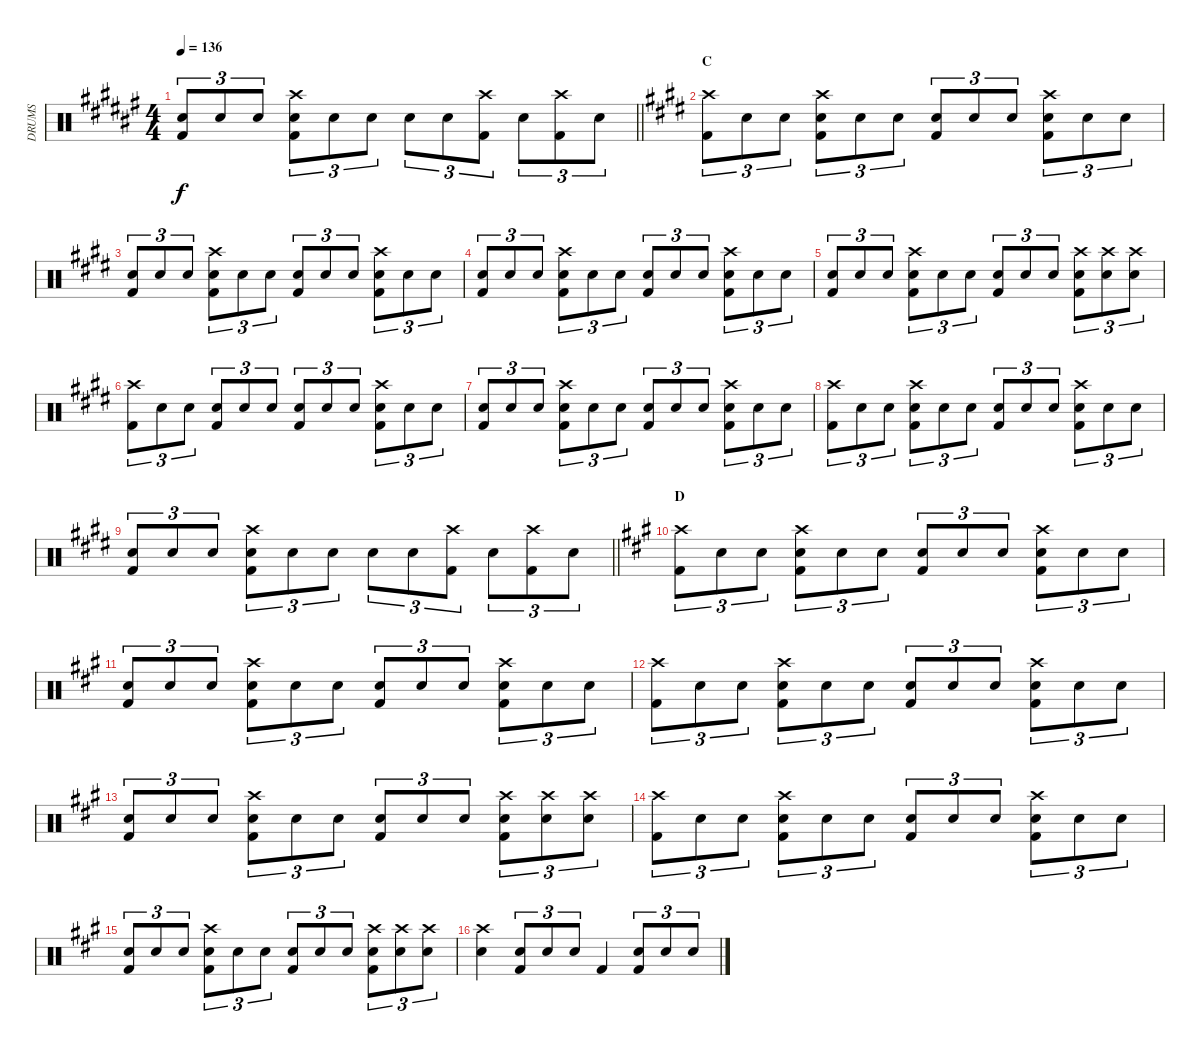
\track ("DRUMS" "DRUMS") {instrument percussion}
\staff {score}
\articulation defaults
\ts (4 4)
\tempo 136
\clef neutral
\barLineRight lightlight
\ks f#
("Snare (hit) 2" "Kick (hit) 2").8{tu (3 2) dy f} "Snare (hit) 2".8{tu (3 2)} "Snare (hit) 2".8{tu (3 2)} ("Crash high (hit)" "Snare (hit) 2" "Kick (hit) 2").8{tu (3 2)} "Snare (hit) 2".8{tu (3 2)} "Snare (hit) 2".8{tu (3 2)} "Snare (hit) 2".8{tu (3 2)} "Snare (hit) 2".8{tu (3 2)} ("Crash high (hit)" "Kick (hit) 2").8{tu (3 2)} "Snare (hit) 2".8{tu (3 2)} ("Crash high (hit)" "Kick (hit) 2").8{tu (3 2)} "Snare (hit) 2".8{tu (3 2)} |
\section ("" "C")
\ks e
("Crash high (hit)" "Kick (hit) 2").8{tu (3 2)} "Snare (hit) 2".8{tu (3 2)} "Snare (hit) 2".8{tu (3 2)} ("Crash high (hit)" "Snare (hit) 2" "Kick (hit) 2").8{tu (3 2)} "Snare (hit) 2".8{tu (3 2)} "Snare (hit) 2".8{tu (3 2)} ("Snare (hit) 2" "Kick (hit) 2").8{tu (3 2)} "Snare (hit) 2".8{tu (3 2)} "Snare (hit) 2".8{tu (3 2)} ("Crash high (hit)" "Snare (hit) 2" "Kick (hit) 2").8{tu (3 2)} "Snare (hit) 2".8{tu (3 2)} "Snare (hit) 2".8{tu (3 2)} |
("Snare (hit) 2" "Kick (hit) 2").8{tu (3 2)} "Snare (hit) 2".8{tu (3 2)} "Snare (hit) 2".8{tu (3 2)} ("Crash high (hit)" "Snare (hit) 2" "Kick (hit) 2").8{tu (3 2)} "Snare (hit) 2".8{tu (3 2)} "Snare (hit) 2".8{tu (3 2)} ("Snare (hit) 2" "Kick (hit) 2").8{tu (3 2)} "Snare (hit) 2".8{tu (3 2)} "Snare (hit) 2".8{tu (3 2)} ("Crash high (hit)" "Snare (hit) 2" "Kick (hit) 2").8{tu (3 2)} "Snare (hit) 2".8{tu (3 2)} "Snare (hit) 2".8{tu (3 2)} |
("Snare (hit) 2" "Kick (hit) 2").8{tu (3 2)} "Snare (hit) 2".8{tu (3 2)} "Snare (hit) 2".8{tu (3 2)} ("Crash high (hit)" "Snare (hit) 2" "Kick (hit) 2").8{tu (3 2)} "Snare (hit) 2".8{tu (3 2)} "Snare (hit) 2".8{tu (3 2)} ("Snare (hit) 2" "Kick (hit) 2").8{tu (3 2)} "Snare (hit) 2".8{tu (3 2)} "Snare (hit) 2".8{tu (3 2)} ("Crash high (hit)" "Snare (hit) 2" "Kick (hit) 2").8{tu (3 2)} "Snare (hit) 2".8{tu (3 2)} "Snare (hit) 2".8{tu (3 2)} |
("Snare (hit) 2" "Kick (hit) 2").8{tu (3 2)} "Snare (hit) 2".8{tu (3 2)} "Snare (hit) 2".8{tu (3 2)} ("Crash high (hit)" "Snare (hit) 2" "Kick (hit) 2").8{tu (3 2)} "Snare (hit) 2".8{tu (3 2)} "Snare (hit) 2".8{tu (3 2)} ("Snare (hit) 2" "Kick (hit) 2").8{tu (3 2)} "Snare (hit) 2".8{tu (3 2)} "Snare (hit) 2".8{tu (3 2)} ("Crash high (hit)" "Snare (hit) 2" "Kick (hit) 2").8{tu (3 2)} ("Crash high (hit)" "Snare (hit) 2").8{tu (3 2)} ("Crash high (hit)" "Snare (hit) 2").8{tu (3 2)} |
("Crash high (hit)" "Kick (hit) 2").8{tu (3 2)} "Snare (hit) 2".8{tu (3 2)} "Snare (hit) 2".8{tu (3 2)} ("Snare (hit) 2" "Kick (hit) 2").8{tu (3 2)} "Snare (hit) 2".8{tu (3 2)} "Snare (hit) 2".8{tu (3 2)} ("Snare (hit) 2" "Kick (hit) 2").8{tu (3 2)} "Snare (hit) 2".8{tu (3 2)} "Snare (hit) 2".8{tu (3 2)} ("Crash high (hit)" "Snare (hit) 2" "Kick (hit) 2").8{tu (3 2)} "Snare (hit) 2".8{tu (3 2)} "Snare (hit) 2".8{tu (3 2)} |
("Snare (hit) 2" "Kick (hit) 2").8{tu (3 2)} "Snare (hit) 2".8{tu (3 2)} "Snare (hit) 2".8{tu (3 2)} ("Crash high (hit)" "Snare (hit) 2" "Kick (hit) 2").8{tu (3 2)} "Snare (hit) 2".8{tu (3 2)} "Snare (hit) 2".8{tu (3 2)} ("Snare (hit) 2" "Kick (hit) 2").8{tu (3 2)} "Snare (hit) 2".8{tu (3 2)} "Snare (hit) 2".8{tu (3 2)} ("Crash high (hit)" "Snare (hit) 2" "Kick (hit) 2").8{tu (3 2)} "Snare (hit) 2".8{tu (3 2)} "Snare (hit) 2".8{tu (3 2)} |
("Crash high (hit)" "Kick (hit) 2").8{tu (3 2)} "Snare (hit) 2".8{tu (3 2)} "Snare (hit) 2".8{tu (3 2)} ("Crash high (hit)" "Snare (hit) 2" "Kick (hit) 2").8{tu (3 2)} "Snare (hit) 2".8{tu (3 2)} "Snare (hit) 2".8{tu (3 2)} ("Snare (hit) 2" "Kick (hit) 2").8{tu (3 2)} "Snare (hit) 2".8{tu (3 2)} "Snare (hit) 2".8{tu (3 2)} ("Crash high (hit)" "Snare (hit) 2" "Kick (hit) 2").8{tu (3 2)} "Snare (hit) 2".8{tu (3 2)} "Snare (hit) 2".8{tu (3 2)} |
\barLineRight lightlight
("Snare (hit) 2" "Kick (hit) 2").8{tu (3 2)} "Snare (hit) 2".8{tu (3 2)} "Snare (hit) 2".8{tu (3 2)} ("Crash high (hit)" "Snare (hit) 2" "Kick (hit) 2").8{tu (3 2)} "Snare (hit) 2".8{tu (3 2)} "Snare (hit) 2".8{tu (3 2)} "Snare (hit) 2".8{tu (3 2)} "Snare (hit) 2".8{tu (3 2)} ("Crash high (hit)" "Kick (hit) 2").8{tu (3 2)} "Snare (hit) 2".8{tu (3 2)} ("Crash high (hit)" "Kick (hit) 2").8{tu (3 2)} "Snare (hit) 2".8{tu (3 2)} |
\section ("" "D")
\ks a
("Crash high (hit)" "Kick (hit) 2").8{tu (3 2)} "Snare (hit) 2".8{tu (3 2)} "Snare (hit) 2".8{tu (3 2)} ("Crash high (hit)" "Snare (hit) 2" "Kick (hit) 2").8{tu (3 2)} "Snare (hit) 2".8{tu (3 2)} "Snare (hit) 2".8{tu (3 2)} ("Snare (hit) 2" "Kick (hit) 2").8{tu (3 2)} "Snare (hit) 2".8{tu (3 2)} "Snare (hit) 2".8{tu (3 2)} ("Crash high (hit)" "Snare (hit) 2" "Kick (hit) 2").8{tu (3 2)} "Snare (hit) 2".8{tu (3 2)} "Snare (hit) 2".8{tu (3 2)} |
("Snare (hit) 2" "Kick (hit) 2").8{tu (3 2)} "Snare (hit) 2".8{tu (3 2)} "Snare (hit) 2".8{tu (3 2)} ("Crash high (hit)" "Snare (hit) 2" "Kick (hit) 2").8{tu (3 2)} "Snare (hit) 2".8{tu (3 2)} "Snare (hit) 2".8{tu (3 2)} ("Snare (hit) 2" "Kick (hit) 2").8{tu (3 2)} "Snare (hit) 2".8{tu (3 2)} "Snare (hit) 2".8{tu (3 2)} ("Crash high (hit)" "Snare (hit) 2" "Kick (hit) 2").8{tu (3 2)} "Snare (hit) 2".8{tu (3 2)} "Snare (hit) 2".8{tu (3 2)} |
("Crash high (hit)" "Kick (hit) 2").8{tu (3 2)} "Snare (hit) 2".8{tu (3 2)} "Snare (hit) 2".8{tu (3 2)} ("Crash high (hit)" "Snare (hit) 2" "Kick (hit) 2").8{tu (3 2)} "Snare (hit) 2".8{tu (3 2)} "Snare (hit) 2".8{tu (3 2)} ("Snare (hit) 2" "Kick (hit) 2").8{tu (3 2)} "Snare (hit) 2".8{tu (3 2)} "Snare (hit) 2".8{tu (3 2)} ("Crash high (hit)" "Snare (hit) 2" "Kick (hit) 2").8{tu (3 2)} "Snare (hit) 2".8{tu (3 2)} "Snare (hit) 2".8{tu (3 2)} |
("Snare (hit) 2" "Kick (hit) 2").8{tu (3 2)} "Snare (hit) 2".8{tu (3 2)} "Snare (hit) 2".8{tu (3 2)} ("Crash high (hit)" "Snare (hit) 2" "Kick (hit) 2").8{tu (3 2)} "Snare (hit) 2".8{tu (3 2)} "Snare (hit) 2".8{tu (3 2)} ("Snare (hit) 2" "Kick (hit) 2").8{tu (3 2)} "Snare (hit) 2".8{tu (3 2)} "Snare (hit) 2".8{tu (3 2)} ("Crash high (hit)" "Snare (hit) 2" "Kick (hit) 2").8{tu (3 2)} ("Crash high (hit)" "Snare (hit) 2").8{tu (3 2)} ("Crash high (hit)" "Snare (hit) 2").8{tu (3 2)} |
("Crash high (hit)" "Kick (hit) 2").8{tu (3 2)} "Snare (hit) 2".8{tu (3 2)} "Snare (hit) 2".8{tu (3 2)} ("Crash high (hit)" "Snare (hit) 2" "Kick (hit) 2").8{tu (3 2)} "Snare (hit) 2".8{tu (3 2)} "Snare (hit) 2".8{tu (3 2)} ("Snare (hit) 2" "Kick (hit) 2").8{tu (3 2)} "Snare (hit) 2".8{tu (3 2)} "Snare (hit) 2".8{tu (3 2)} ("Crash high (hit)" "Snare (hit) 2" "Kick (hit) 2").8{tu (3 2)} "Snare (hit) 2".8{tu (3 2)} "Snare (hit) 2".8{tu (3 2)} |
("Snare (hit) 2" "Kick (hit) 2").8{tu (3 2)} "Snare (hit) 2".8{tu (3 2)} "Snare (hit) 2".8{tu (3 2)} ("Crash high (hit)" "Snare (hit) 2" "Kick (hit) 2").8{tu (3 2)} "Snare (hit) 2".8{tu (3 2)} "Snare (hit) 2".8{tu (3 2)} ("Snare (hit) 2" "Kick (hit) 2").8{tu (3 2)} "Snare (hit) 2".8{tu (3 2)} "Snare (hit) 2".8{tu (3 2)} ("Crash high (hit)" "Snare (hit) 2" "Kick (hit) 2").8{tu (3 2)} ("Crash high (hit)" "Snare (hit) 2").8{tu (3 2)} ("Crash high (hit)" "Snare (hit) 2").8{tu (3 2)} |
("Crash high (hit)" "Snare (hit) 2").4 ("Snare (hit) 2" "Kick (hit) 2").8{tu (3 2)} "Snare (hit) 2".8{tu (3 2)} "Snare (hit) 2".8{tu (3 2)} "Kick (hit) 2".4 ("Snare (hit) 2" "Kick (hit) 2").8{tu (3 2)} "Snare (hit) 2".8{tu (3 2)} "Snare (hit) 2".8{tu (3 2)}
